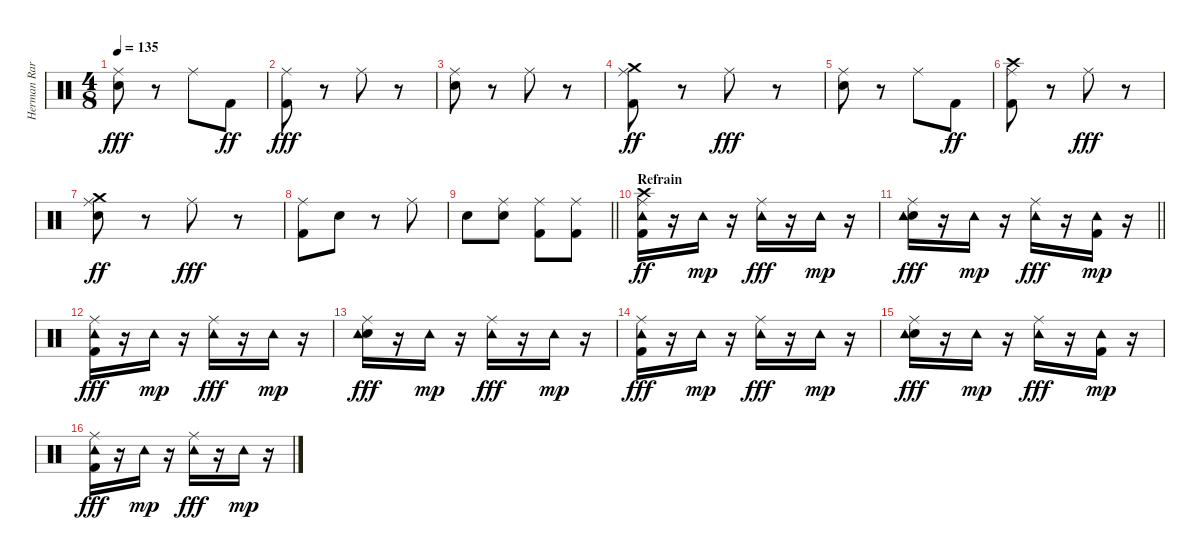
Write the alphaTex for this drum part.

\track ("Herman Rarebell" "Herman Rar") {instrument percussion}
\staff {score}
\articulation defaults
\ts (4 8)
\tempo 135
\clef neutral
\ks c
("Snare (hit) 2" "Ride (middle)").8{dy fff} r.8 "Ride (middle)".8 "Kick (hit) 2".8{dy ff} |
("Kick (hit) 2" "Ride (middle)").8{dy fff} r.8 "Ride (middle)".8 r.8 |
("Snare (hit) 2" "Ride (middle)").8 r.8 "Ride (middle)".8 r.8 |
("Kick (hit) 2" "Ride (middle)" "Crash medium (hit)").8{dy ff} r.8 "Ride (middle)".8{dy fff} r.8 |
("Snare (hit) 2" "Ride (middle)").8 r.8 "Ride (middle)".8 "Kick (hit) 2".8{dy ff} |
("Kick (hit) 2" "Ride (middle)" "Crash high (hit)").8 r.8 "Ride (middle)".8{dy fff} r.8 |
("Snare (hit) 2" "Ride (middle)" "Crash medium (hit)").8{dy ff} r.8 "Ride (middle)".8{dy fff} r.8 |
("Kick (hit) 2" "Ride (middle)").8 "Snare (hit) 2".8 r.8 "Ride (middle)".8 |
\barLineRight lightlight "Snare (hit) 2".8
("Snare (hit) 2" "Ride (middle)").8 ("Kick (hit) 2" "Ride (middle)").8 ("Kick (hit) 2" "Ride (middle)").8 |
\section ("" "Refrain")
("Kick (hit) 2" "Ride (middle)" "Tambourine (hit)" "Crash high (hit)").16{dy ff} r.16 "Tambourine (hit)".16{dy mp} r.16 ("Ride (middle)" "Tambourine (hit)").16{dy fff} r.16 "Tambourine (hit)".16{dy mp} r.16 |
\barLineRight lightlight
("Snare (hit) 2" "Ride (middle)" "Tambourine (hit)").16{dy fff} r.16 "Tambourine (hit)".16{dy mp} r.16 ("Ride (middle)" "Tambourine (hit)").16{dy fff} r.16 ("Kick (hit) 2" "Tambourine (hit)").16{dy mp} r.16 |
\section ("" "")
("Kick (hit) 2" "Ride (middle)" "Tambourine (hit)").16{dy fff} r.16 "Tambourine (hit)".16{dy mp} r.16 ("Ride (middle)" "Tambourine (hit)").16{dy fff} r.16 "Tambourine (hit)".16{dy mp} r.16 |
("Snare (hit) 2" "Ride (middle)" "Tambourine (hit)").16{dy fff} r.16 "Tambourine (hit)".16{dy mp} r.16 ("Ride (middle)" "Tambourine (hit)").16{dy fff} r.16 "Tambourine (hit)".16{dy mp} r.16 |
("Kick (hit) 2" "Ride (middle)" "Tambourine (hit)").16{dy fff} r.16 "Tambourine (hit)".16{dy mp} r.16 ("Ride (middle)" "Tambourine (hit)").16{dy fff} r.16 "Tambourine (hit)".16{dy mp} r.16 |
("Snare (hit) 2" "Ride (middle)" "Tambourine (hit)").16{dy fff} r.16 "Tambourine (hit)".16{dy mp} r.16 ("Ride (middle)" "Tambourine (hit)").16{dy fff} r.16 ("Kick (hit) 2" "Tambourine (hit)").16{dy mp} r.16 |
("Kick (hit) 2" "Ride (middle)" "Tambourine (hit)").16{dy fff} r.16 "Tambourine (hit)".16{dy mp} r.16 ("Ride (middle)" "Tambourine (hit)").16{dy fff} r.16 "Tambourine (hit)".16{dy mp} r.16
